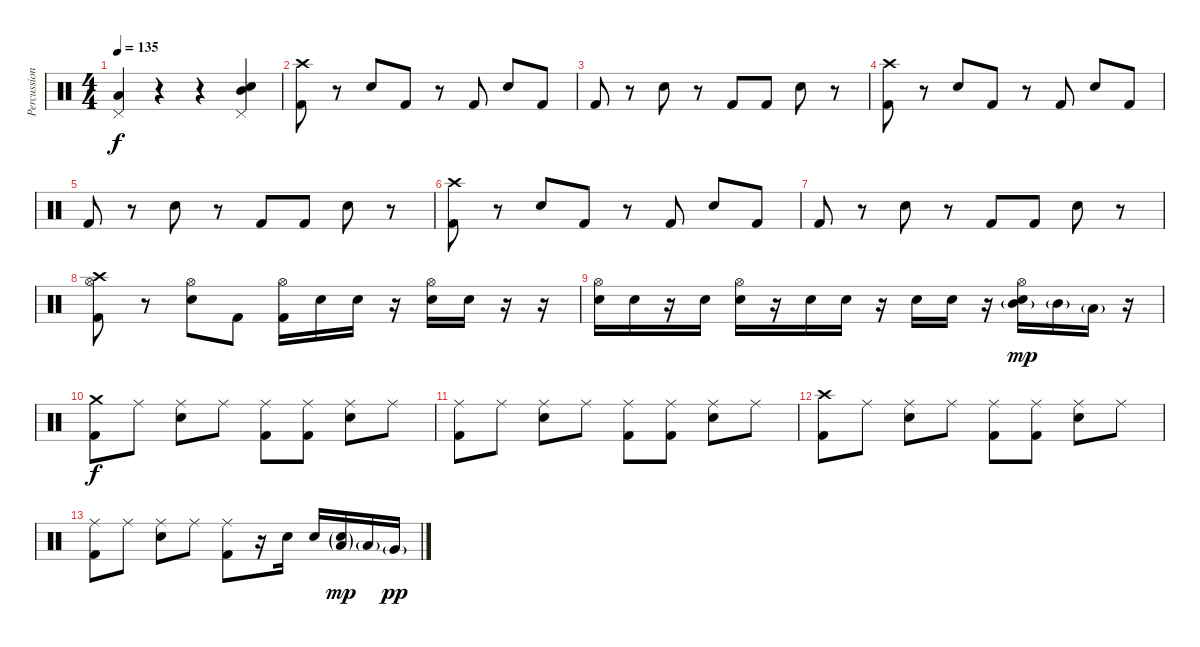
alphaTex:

\track ("Percussion" "Percussion") {instrument percussion}
\staff {score}
\articulation defaults
\ts (4 4)
\tempo 135
\clef neutral
\ks c
("Pedal Hi-Hat (hit)" "Low Tom (hit)").4{dy f} r.4 r.4 ("Pedal Hi-Hat (hit)" "Snare (hit) 2" "Mid Tom (hit)").4 |
("Crash high (hit)" "Kick (hit) 2").8 r.8 "Snare (hit) 2".8 "Kick (hit) 2".8 r.8 "Kick (hit) 2".8 "Snare (hit) 2".8 "Kick (hit) 2".8 |
"Kick (hit) 2".8 r.8 "Snare (hit) 2".8 r.8 "Kick (hit) 2".8 "Kick (hit) 2".8 "Snare (hit) 2".8 r.8 |
("Crash high (hit)" "Kick (hit) 2").8 r.8 "Snare (hit) 2".8 "Kick (hit) 2".8 r.8 "Kick (hit) 2".8 "Snare (hit) 2".8 "Kick (hit) 2".8 |
"Kick (hit) 2".8 r.8 "Snare (hit) 2".8 r.8 "Kick (hit) 2".8 "Kick (hit) 2".8 "Snare (hit) 2".8 r.8 |
("Crash high (hit)" "Kick (hit) 2").8 r.8 "Snare (hit) 2".8 "Kick (hit) 2".8 r.8 "Kick (hit) 2".8 "Snare (hit) 2".8 "Kick (hit) 2".8 |
"Kick (hit) 2".8 r.8 "Snare (hit) 2".8 r.8 "Kick (hit) 2".8 "Kick (hit) 2".8 "Snare (hit) 2".8 r.8 |
("Crash high (hit)" "Hi-Hat (open)" "Kick (hit) 2").8 r.8 ("Hi-Hat (open)" "Snare (hit) 2").8 "Kick (hit) 2".8 ("Hi-Hat (open)" "Kick (hit) 2").16 "Snare (hit) 2".16 "Snare (hit) 2".16 r.16 ("Hi-Hat (open)" "Snare (hit) 2").16 "Snare (hit) 2".16 r.16 r.16 |
("Hi-Hat (open)" "Snare (hit) 2").16 "Snare (hit) 2".16 r.16 "Snare (hit) 2".16 ("Hi-Hat (open)" "Snare (hit) 2").16 r.16 "Snare (hit) 2".16 "Snare (hit) 2".16 r.16 "Snare (hit) 2".16 "Snare (hit) 2".16 r.16 ("Hi-Hat (open)" "Snare (hit) 2" "Mid Tom (hit)"{g}).16{dy mp} "Mid Tom (hit)"{g}.16 "Low Tom (hit)"{g}.16 r.16 |
("Crash medium (hit)" "Kick (hit) 2").8{dy f} "Ride (middle)".8 ("Ride (middle)" "Snare (hit) 2").8 "Ride (middle)".8 ("Ride (middle)" "Kick (hit) 2").8 ("Ride (middle)" "Kick (hit) 2").8 ("Ride (middle)" "Snare (hit) 2").8 "Ride (middle)".8 |
("Ride (middle)" "Kick (hit) 2").8 "Ride (middle)".8 ("Ride (middle)" "Snare (hit) 2").8 "Ride (middle)".8 ("Ride (middle)" "Kick (hit) 2").8 ("Ride (middle)" "Kick (hit) 2").8 ("Ride (middle)" "Snare (hit) 2").8 "Ride (middle)".8 |
("Crash high (hit)" "Kick (hit) 2").8 "Ride (middle)".8 ("Ride (middle)" "Snare (hit) 2").8 "Ride (middle)".8 ("Ride (middle)" "Kick (hit) 2").8 ("Ride (middle)" "Kick (hit) 2").8 ("Ride (middle)" "Snare (hit) 2").8 "Ride (middle)".8 |
("Ride (middle)" "Kick (hit) 2").8 "Ride (middle)".8 ("Ride (middle)" "Snare (hit) 2").8 "Ride (middle)".8 ("Ride (middle)" "Kick (hit) 2").8 r.16 "Snare (hit) 2".16 "Snare (hit) 2".16 ("Snare (hit) 2"{g} "Low Tom (hit)"{g}).16{dy mp} "Low Tom (hit)"{g}.16 "Very Low Tom (hit)"{g}.16{dy pp}
